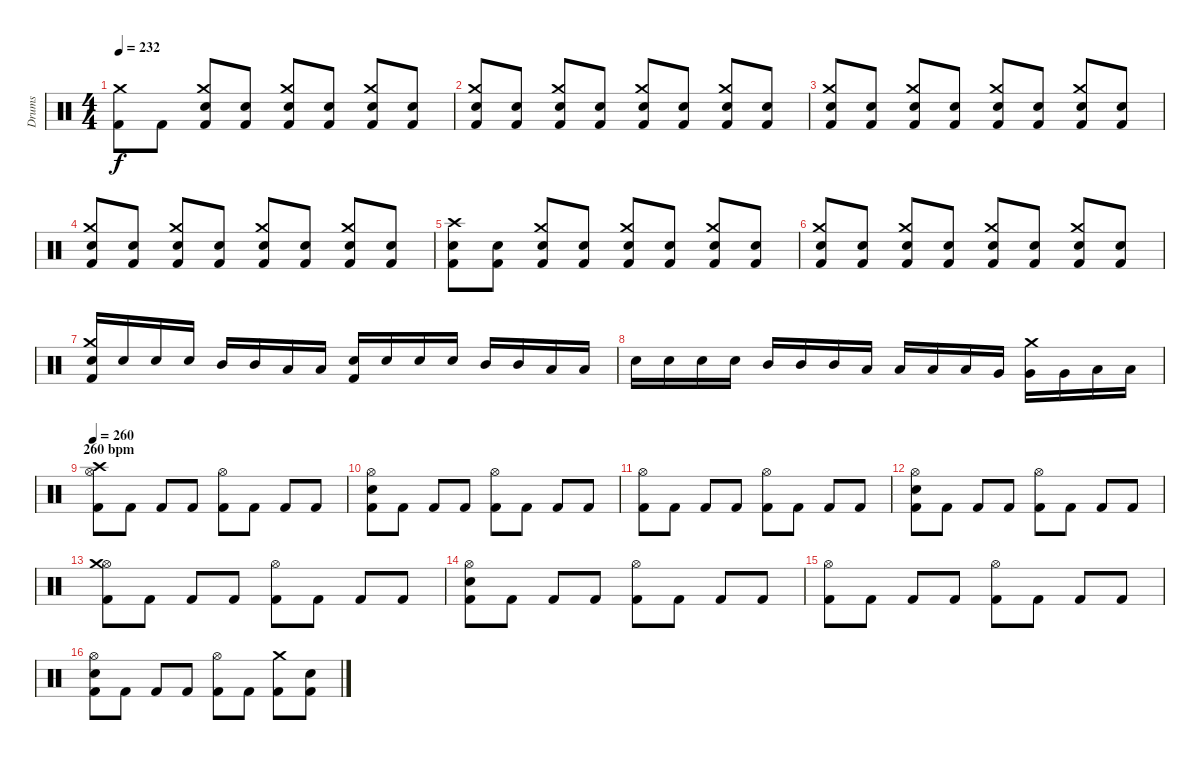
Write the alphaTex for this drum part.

\track ("Drums" "Drums") {instrument percussion}
\staff {score}
\articulation defaults
\ts (4 4)
\tempo 232
\clef neutral
\ks c
("Kick (hit) 2" "Crash medium (hit)").8{dy f} "Kick (hit) 2".8 ("Kick (hit) 2" "Snare (hit) 2" "Crash medium (hit)").8 ("Kick (hit) 2" "Snare (hit) 2").8 ("Kick (hit) 2" "Snare (hit) 2" "Crash medium (hit)").8 ("Kick (hit) 2" "Snare (hit) 2").8 ("Kick (hit) 2" "Snare (hit) 2" "Crash medium (hit)").8 ("Kick (hit) 2" "Snare (hit) 2").8 |
("Kick (hit) 2" "Snare (hit) 2" "Crash medium (hit)").8 ("Kick (hit) 2" "Snare (hit) 2").8 ("Kick (hit) 2" "Snare (hit) 2" "Crash medium (hit)").8 ("Kick (hit) 2" "Snare (hit) 2").8 ("Kick (hit) 2" "Snare (hit) 2" "Crash medium (hit)").8 ("Kick (hit) 2" "Snare (hit) 2").8 ("Kick (hit) 2" "Snare (hit) 2" "Crash medium (hit)").8 ("Kick (hit) 2" "Snare (hit) 2").8 |
("Kick (hit) 2" "Snare (hit) 2" "Crash medium (hit)").8 ("Kick (hit) 2" "Snare (hit) 2").8 ("Kick (hit) 2" "Snare (hit) 2" "Crash medium (hit)").8 ("Kick (hit) 2" "Snare (hit) 2").8 ("Kick (hit) 2" "Snare (hit) 2" "Crash medium (hit)").8 ("Kick (hit) 2" "Snare (hit) 2").8 ("Kick (hit) 2" "Snare (hit) 2" "Crash medium (hit)").8 ("Kick (hit) 2" "Snare (hit) 2").8 |
("Kick (hit) 2" "Snare (hit) 2" "Crash medium (hit)").8 ("Kick (hit) 2" "Snare (hit) 2").8 ("Kick (hit) 2" "Snare (hit) 2" "Crash medium (hit)").8 ("Kick (hit) 2" "Snare (hit) 2").8 ("Kick (hit) 2" "Snare (hit) 2" "Crash medium (hit)").8 ("Kick (hit) 2" "Snare (hit) 2").8 ("Kick (hit) 2" "Snare (hit) 2" "Crash medium (hit)").8 ("Kick (hit) 2" "Snare (hit) 2").8 |
("Kick (hit) 2" "Snare (hit) 2" "Crash high (hit)").8 ("Kick (hit) 2" "Snare (hit) 2").8 ("Kick (hit) 2" "Snare (hit) 2" "Crash medium (hit)").8 ("Kick (hit) 2" "Snare (hit) 2").8 ("Kick (hit) 2" "Snare (hit) 2" "Crash medium (hit)").8 ("Kick (hit) 2" "Snare (hit) 2").8 ("Kick (hit) 2" "Snare (hit) 2" "Crash medium (hit)").8 ("Kick (hit) 2" "Snare (hit) 2").8 |
("Kick (hit) 2" "Snare (hit) 2" "Crash medium (hit)").8 ("Kick (hit) 2" "Snare (hit) 2").8 ("Kick (hit) 2" "Snare (hit) 2" "Crash medium (hit)").8 ("Kick (hit) 2" "Snare (hit) 2").8 ("Kick (hit) 2" "Snare (hit) 2" "Crash medium (hit)").8 ("Kick (hit) 2" "Snare (hit) 2").8 ("Kick (hit) 2" "Snare (hit) 2" "Crash medium (hit)").8 ("Kick (hit) 2" "Snare (hit) 2").8 |
("Kick (hit) 2" "Electric Snare (hit)" "Crash medium (hit)").16 "Electric Snare (hit)".16 "Electric Snare (hit)".16 "Electric Snare (hit)".16 "Mid Tom (hit)".16 "Mid Tom (hit)".16 "Low Tom (hit)".16 "Low Tom (hit)".16 ("Kick (hit) 2" "Electric Snare (hit)").16 "Electric Snare (hit)".16 "Electric Snare (hit)".16 "Electric Snare (hit)".16 "Mid Tom (hit)".16 "Mid Tom (hit)".16 "Low Tom (hit)".16 "Low Tom (hit)".16 |
"Electric Snare (hit)".16 "Electric Snare (hit)".16 "Electric Snare (hit)".16 "Electric Snare (hit)".16 "Mid Tom (hit)".16 "Mid Tom (hit)".16 "Mid Tom (hit)".16 "Low Tom (hit)".16 "Low Tom (hit)".16 "Low Tom (hit)".16 "Low Tom (hit)".16 "Very Low Tom (hit)".16 ("Very Low Tom (hit)" "Crash medium (hit)").16 "Very Low Tom (hit)".16 "Low Floor Tom (hit)".16 "Low Floor Tom (hit)".16 |
\section ("" "260 bpm")
\tempo 260
("Kick (hit) 2" "Hi-Hat (open)" "Crash high (hit)").8 "Kick (hit) 2".8 "Kick (hit) 2".8 "Kick (hit) 2".8 ("Kick (hit) 2" "Hi-Hat (open)").8 "Kick (hit) 2".8 "Kick (hit) 2".8 "Kick (hit) 2".8 |
("Kick (hit) 2" "Electric Snare (hit)" "Hi-Hat (open)").8 "Kick (hit) 2".8 "Kick (hit) 2".8 "Kick (hit) 2".8 ("Kick (hit) 2" "Hi-Hat (open)").8 "Kick (hit) 2".8 "Kick (hit) 2".8 "Kick (hit) 2".8 |
("Kick (hit) 2" "Hi-Hat (open)").8 "Kick (hit) 2".8 "Kick (hit) 2".8 "Kick (hit) 2".8 ("Kick (hit) 2" "Hi-Hat (open)").8 "Kick (hit) 2".8 "Kick (hit) 2".8 "Kick (hit) 2".8 |
("Kick (hit) 2" "Electric Snare (hit)" "Hi-Hat (open)").8 "Kick (hit) 2".8 "Kick (hit) 2".8 "Kick (hit) 2".8 ("Kick (hit) 2" "Hi-Hat (open)").8 "Kick (hit) 2".8 "Kick (hit) 2".8 "Kick (hit) 2".8 |
("Kick (hit) 2" "Hi-Hat (open)" "Crash medium (hit)").8 "Kick (hit) 2".8 "Kick (hit) 2".8 "Kick (hit) 2".8 ("Kick (hit) 2" "Hi-Hat (open)").8 "Kick (hit) 2".8 "Kick (hit) 2".8 "Kick (hit) 2".8 |
("Kick (hit) 2" "Electric Snare (hit)" "Hi-Hat (open)").8 "Kick (hit) 2".8 "Kick (hit) 2".8 "Kick (hit) 2".8 ("Kick (hit) 2" "Hi-Hat (open)").8 "Kick (hit) 2".8 "Kick (hit) 2".8 "Kick (hit) 2".8 |
("Kick (hit) 2" "Hi-Hat (open)").8 "Kick (hit) 2".8 "Kick (hit) 2".8 "Kick (hit) 2".8 ("Kick (hit) 2" "Hi-Hat (open)").8 "Kick (hit) 2".8 "Kick (hit) 2".8 "Kick (hit) 2".8 |
("Kick (hit) 2" "Electric Snare (hit)" "Hi-Hat (open)").8 "Kick (hit) 2".8 "Kick (hit) 2".8 "Kick (hit) 2".8 ("Kick (hit) 2" "Hi-Hat (open)").8 "Kick (hit) 2".8 ("Kick (hit) 2" "Crash medium (hit)").8 ("Kick (hit) 2" "Electric Snare (hit)").8
